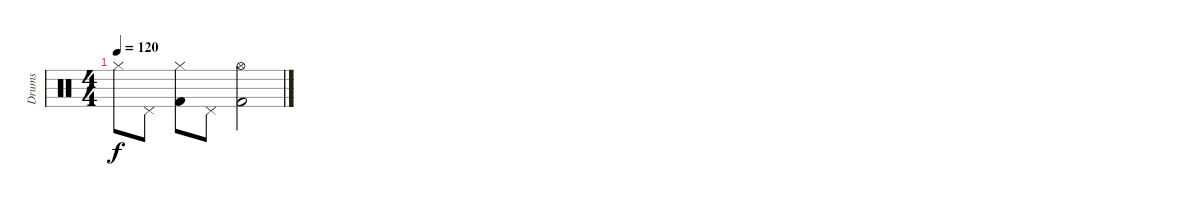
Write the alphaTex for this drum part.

\track ("Drums" "Drums") {instrument percussion}
\staff {score}
\articulation defaults
\ts (4 4)
\tempo 120
\clef neutral
\ks c "Hi-Hat (closed)".8{dy f} "Pedal Hi-Hat (hit)".8
("Hi-Hat (closed)" "Kick (hit) 2").8 "Pedal Hi-Hat (hit)".8 ("Hi-Hat (open)" "Kick (hit) 2").2
